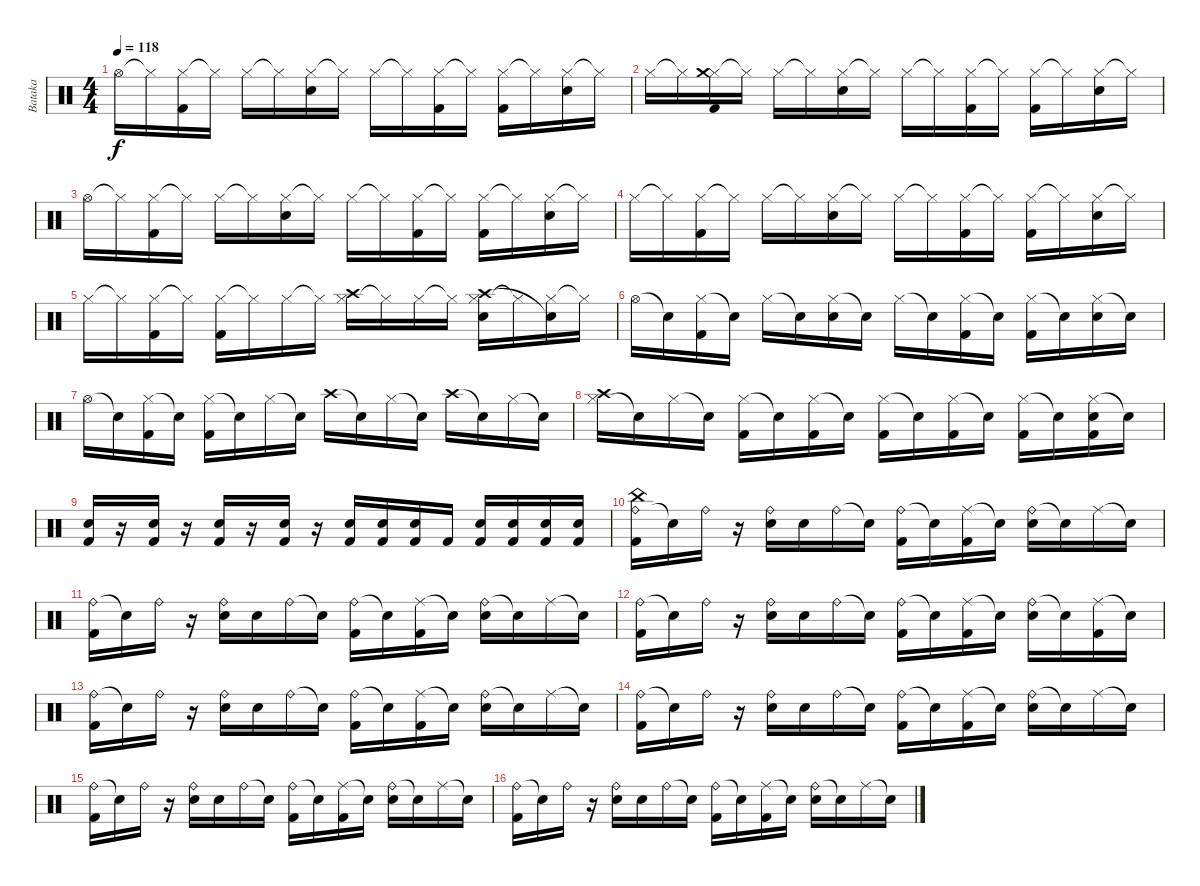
\track ("Bataka" "Bataka") {instrument percussion}
\staff {score}
\articulation defaults
\ts (4 4)
\tempo 118
\clef neutral
\ks c "Hi-Hat (open)".16{dy f} "Hi-Hat (closed)"{t}.16
("Hi-Hat (closed)" "Kick (hit) 2").16 "Hi-Hat (closed)"{t}.16 "Hi-Hat (closed)".16 "Hi-Hat (closed)"{t}.16 ("Hi-Hat (closed)" "Snare (hit) 2").16 "Hi-Hat (closed)"{t}.16 "Hi-Hat (closed)".16 "Hi-Hat (closed)"{t}.16 ("Hi-Hat (closed)" "Kick (hit) 2").16 "Hi-Hat (closed)"{t}.16 ("Hi-Hat (closed)" "Kick (hit) 2").16 "Hi-Hat (closed)"{t}.16 ("Hi-Hat (closed)" "Snare (hit) 2").16 "Hi-Hat (closed)"{t}.16 |
"Hi-Hat (closed)".16 "Hi-Hat (closed)"{t}.16 ("Hi-Hat (closed)" "Kick (hit) 2" "Crash medium (hit)").16 "Hi-Hat (closed)"{t}.16 "Hi-Hat (closed)".16 "Hi-Hat (closed)"{t}.16 ("Hi-Hat (closed)" "Snare (hit) 2").16 "Hi-Hat (closed)"{t}.16 "Hi-Hat (closed)".16 "Hi-Hat (closed)"{t}.16 ("Hi-Hat (closed)" "Kick (hit) 2").16 "Hi-Hat (closed)"{t}.16 ("Hi-Hat (closed)" "Kick (hit) 2").16 "Hi-Hat (closed)"{t}.16 ("Hi-Hat (closed)" "Snare (hit) 2").16 "Hi-Hat (closed)"{t}.16 |
"Hi-Hat (open)".16 "Hi-Hat (closed)"{t}.16 ("Hi-Hat (closed)" "Kick (hit) 2").16 "Hi-Hat (closed)"{t}.16 "Hi-Hat (closed)".16 "Hi-Hat (closed)"{t}.16 ("Hi-Hat (closed)" "Snare (hit) 2").16 "Hi-Hat (closed)"{t}.16 "Hi-Hat (closed)".16 "Hi-Hat (closed)"{t}.16 ("Hi-Hat (closed)" "Kick (hit) 2").16 "Hi-Hat (closed)"{t}.16 ("Hi-Hat (closed)" "Kick (hit) 2").16 "Hi-Hat (closed)"{t}.16 ("Hi-Hat (closed)" "Snare (hit) 2").16 "Hi-Hat (closed)"{t}.16 |
"Hi-Hat (closed)".16 "Hi-Hat (closed)"{t}.16 ("Hi-Hat (closed)" "Kick (hit) 2").16 "Hi-Hat (closed)"{t}.16 "Hi-Hat (closed)".16 "Hi-Hat (closed)"{t}.16 ("Hi-Hat (closed)" "Snare (hit) 2").16 "Hi-Hat (closed)"{t}.16 "Hi-Hat (closed)".16 "Hi-Hat (closed)"{t}.16 ("Hi-Hat (closed)" "Kick (hit) 2").16 "Hi-Hat (closed)"{t}.16 ("Hi-Hat (closed)" "Kick (hit) 2").16 "Hi-Hat (closed)"{t}.16 ("Hi-Hat (closed)" "Snare (hit) 2").16 "Hi-Hat (closed)"{t}.16 |
"Hi-Hat (closed)".16 "Hi-Hat (closed)"{t}.16 ("Hi-Hat (closed)" "Kick (hit) 2").16 "Hi-Hat (closed)"{t}.16 ("Hi-Hat (closed)" "Kick (hit) 2").16 "Hi-Hat (closed)"{t}.16 "Hi-Hat (closed)".16 "Hi-Hat (closed)"{t}.16 ("Hi-Hat (closed)" "Crash high (hit)").16 "Hi-Hat (closed)"{t}.16 "Hi-Hat (closed)".16 "Hi-Hat (closed)"{t}.16 ("Hi-Hat (closed)" "Crash high (hit)" "Snare (hit) 2").16 "Hi-Hat (closed)"{t}.16 ("Hi-Hat (closed)" "Snare (hit)"{t}).16 "Hi-Hat (closed)"{t}.16 |
"Hi-Hat (open)".16 "Snare (hit)"{t}.16 ("Hi-Hat (closed)" "Kick (hit) 2").16 "Snare (hit)"{t}.16 "Hi-Hat (closed)".16 "Snare (hit)"{t}.16 ("Hi-Hat (closed)" "Snare (hit) 2").16 "Snare (hit)"{t}.16 "Hi-Hat (closed)".16 "Snare (hit)"{t}.16 ("Hi-Hat (closed)" "Kick (hit) 2").16 "Snare (hit)"{t}.16 ("Hi-Hat (closed)" "Kick (hit) 2").16 "Snare (hit)"{t}.16 ("Hi-Hat (closed)" "Snare (hit) 2").16 "Snare (hit)"{t}.16 |
"Hi-Hat (open)".16 "Snare (hit)"{t}.16 ("Hi-Hat (closed)" "Kick (hit) 2").16 "Snare (hit)"{t}.16 ("Hi-Hat (closed)" "Kick (hit) 2").16 "Snare (hit)"{t}.16 "Hi-Hat (closed)"{x}.16 "Snare (hit)"{t}.16 "Crash high (hit)".16 "Snare (hit)"{t}.16 "Hi-Hat (closed)"{x}.16 "Snare (hit)"{t}.16 "Crash high (hit)".16 "Snare (hit)"{t}.16 "Hi-Hat (closed)"{x}.16 "Snare (hit)"{t}.16 |
("Hi-Hat (closed)" "Crash high (hit)").16 "Snare (hit)"{t}.16 "Hi-Hat (closed)"{x}.16 "Snare (hit)"{t}.16 ("Hi-Hat (closed)"{x} "Kick (hit) 2").16 "Snare (hit)"{t}.16 ("Hi-Hat (closed)"{x} "Kick (hit) 2").16 "Snare (hit)"{t}.16 ("Hi-Hat (closed)"{x} "Kick (hit) 2").16 "Snare (hit)"{t}.16 ("Hi-Hat (closed)"{x} "Kick (hit) 2").16 "Snare (hit)"{t}.16 ("Hi-Hat (closed)"{x} "Kick (hit) 2").16 "Snare (hit)"{t}.16 ("Hi-Hat (closed)"{x} "Kick (hit) 2" "Snare (hit) 2").16 "Snare (hit)"{t}.16 |
("Kick (hit) 2" "Snare (hit) 2").16 r.16 ("Kick (hit) 2" "Snare (hit) 2").16 r.16 ("Kick (hit) 2" "Snare (hit) 2").16 r.16 ("Kick (hit) 2" "Snare (hit) 2").16 r.16 ("Kick (hit) 2" "Snare (hit) 2").16 ("Kick (hit) 2" "Snare (hit) 2").16 ("Kick (hit) 2" "Snare (hit) 2").16 "Kick (hit) 2".16 ("Kick (hit) 2" "Snare (hit) 2").16 ("Kick (hit) 2" "Snare (hit) 2").16 ("Kick (hit) 2" "Snare (hit) 2").16 ("Kick (hit) 2" "Snare (hit) 2").16 |
("Ride (bell)" "China (hit)" "Kick (hit) 2").16 "Snare (hit)"{t}.16 "Ride (bell)"{x}.16 r.16 ("Ride (bell)" "Snare (hit) 2").16 "Snare (hit)"{x}.16 "Ride (bell)"{x}.16 "Snare (hit)"{t}.16 ("Ride (bell)" "Kick (hit) 2").16 "Snare (hit)"{t}.16 ("Ride (middle)"{x} "Kick (hit) 2").16 "Snare (hit)"{t}.16 ("Ride (bell)" "Snare (hit) 2").16 "Snare (hit)"{t}.16 "Ride (middle)"{x}.16 "Snare (hit)"{t}.16 |
("Ride (bell)" "Kick (hit) 2").16 "Snare (hit)"{t}.16 "Ride (bell)"{x}.16 r.16 ("Ride (bell)" "Snare (hit) 2").16 "Snare (hit)"{x}.16 "Ride (bell)"{x}.16 "Snare (hit)"{t}.16 ("Ride (bell)" "Kick (hit) 2").16 "Snare (hit)"{t}.16 ("Ride (middle)"{x} "Kick (hit) 2").16 "Snare (hit)"{t}.16 ("Ride (bell)" "Snare (hit) 2").16 "Snare (hit)"{t}.16 "Ride (middle)"{x}.16 "Snare (hit)"{t}.16 |
("Ride (bell)" "Kick (hit) 2").16 "Snare (hit)"{t}.16 "Ride (bell)"{x}.16 r.16 ("Ride (bell)" "Snare (hit) 2").16 "Snare (hit)"{x}.16 "Ride (bell)"{x}.16 "Snare (hit)"{t}.16 ("Ride (bell)" "Kick (hit) 2").16 "Snare (hit)"{t}.16 ("Ride (middle)"{x} "Kick (hit) 2").16 "Snare (hit)"{t}.16 ("Ride (bell)" "Snare (hit) 2").16 "Snare (hit)"{t}.16 ("Ride (middle)"{x} "Kick (hit) 2").16 "Snare (hit)"{t}.16 |
("Ride (bell)" "Kick (hit) 2").16 "Snare (hit)"{t}.16 "Ride (bell)"{x}.16 r.16 ("Ride (bell)" "Snare (hit) 2").16 "Snare (hit)"{x}.16 "Ride (bell)"{x}.16 "Snare (hit)"{t}.16 ("Ride (bell)" "Kick (hit) 2").16 "Snare (hit)"{t}.16 ("Ride (middle)"{x} "Kick (hit) 2").16 "Snare (hit)"{t}.16 ("Ride (bell)" "Snare (hit) 2").16 "Snare (hit)"{t}.16 "Ride (middle)"{x}.16 "Snare (hit)"{t}.16 |
("Ride (bell)" "Kick (hit) 2").16 "Snare (hit)"{t}.16 "Ride (bell)"{x}.16 r.16 ("Ride (bell)" "Snare (hit) 2").16 "Snare (hit)"{x}.16 "Ride (bell)"{x}.16 "Snare (hit)"{t}.16 ("Ride (bell)" "Kick (hit) 2").16 "Snare (hit)"{t}.16 ("Ride (middle)"{x} "Kick (hit) 2").16 "Snare (hit)"{t}.16 ("Ride (bell)" "Snare (hit) 2").16 "Snare (hit)"{t}.16 "Ride (middle)"{x}.16 "Snare (hit)"{t}.16 |
("Ride (bell)" "Kick (hit) 2").16 "Snare (hit)"{t}.16 "Ride (bell)"{x}.16 r.16 ("Ride (bell)" "Snare (hit) 2").16 "Snare (hit)"{x}.16 "Ride (bell)"{x}.16 "Snare (hit)"{t}.16 ("Ride (bell)" "Kick (hit) 2").16 "Snare (hit)"{t}.16 ("Ride (middle)"{x} "Kick (hit) 2").16 "Snare (hit)"{t}.16 ("Ride (bell)" "Snare (hit) 2").16 "Snare (hit)"{t}.16 "Ride (middle)"{x}.16 "Snare (hit)"{t}.16 |
("Ride (bell)" "Kick (hit) 2").16 "Snare (hit)"{t}.16 "Ride (bell)"{x}.16 r.16 ("Ride (bell)" "Snare (hit) 2").16 "Snare (hit)"{x}.16 "Ride (bell)"{x}.16 "Snare (hit)"{t}.16 ("Ride (bell)" "Kick (hit) 2").16 "Snare (hit)"{t}.16 ("Ride (middle)"{x} "Kick (hit) 2").16 "Snare (hit)"{t}.16 ("Ride (bell)" "Snare (hit) 2").16 "Snare (hit)"{t}.16 "Ride (middle)"{x}.16 "Snare (hit)"{t}.16
